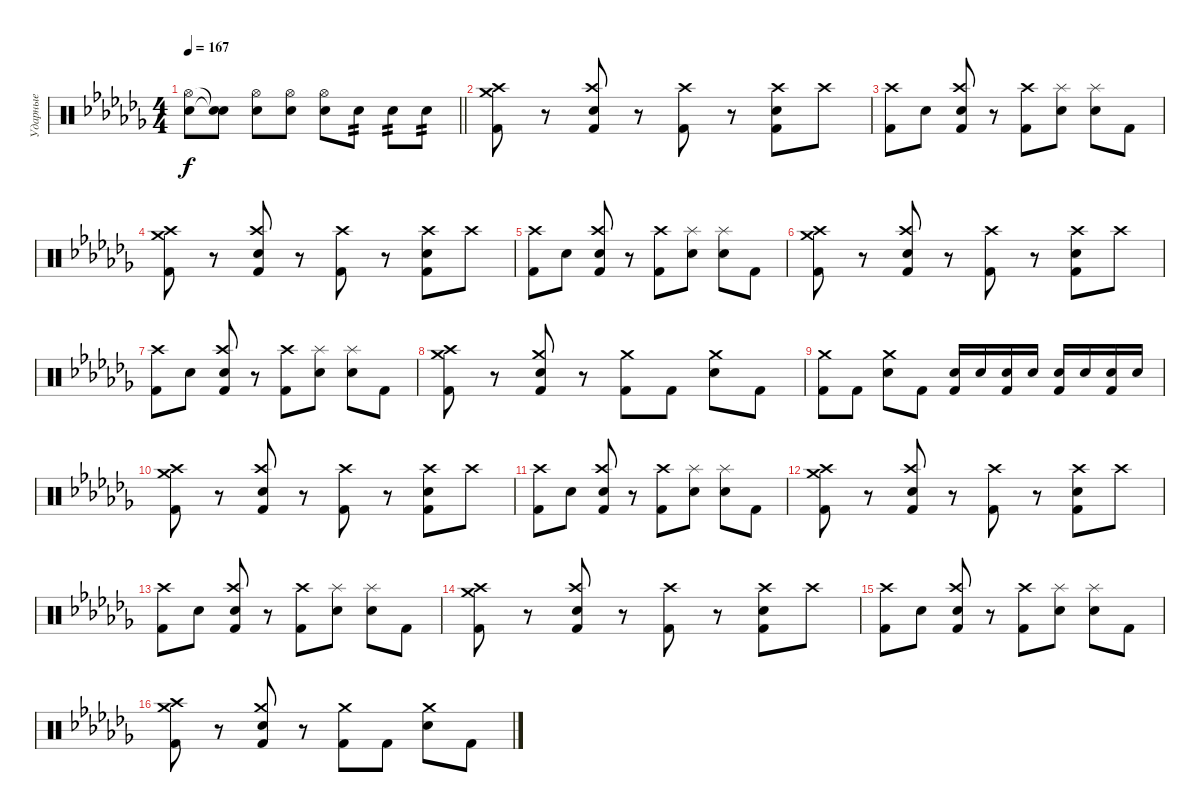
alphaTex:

\track ("Ударные" "Ударные") {instrument percussion}
\staff {score}
\articulation defaults
\ts (4 4)
\tempo 167
\clef neutral
\barLineRight lightlight
\ks abminor
("Hi-Hat (open)" "Electric Snare (hit)").8{dy f} ("Snare (hit)"{t} "Snare (hit)"{t}).8 ("Hi-Hat (open)" "Electric Snare (hit)").8 ("Hi-Hat (open)" "Electric Snare (hit)").8 ("Hi-Hat (open)" "Electric Snare (hit)").8 "Electric Snare (hit)".8{tp 2} "Electric Snare (hit)".8{tp 2} "Electric Snare (hit)".8{tp 2} |
("Crash high (hit)" "Crash medium (hit)" "Kick (hit) 2").8 r.8 ("Crash high (hit)" "Electric Snare (hit)" "Kick (hit) 2").8 r.8 ("Crash high (hit)" "Kick (hit) 2").8 r.8 ("Crash high (hit)" "Electric Snare (hit)" "Kick (hit) 2").8 "Crash high (hit)".8 |
("Crash high (hit)" "Kick (hit) 2").8 "Electric Snare (hit)".8 ("Crash high (hit)" "Electric Snare (hit)" "Kick (hit) 2").8 r.8 ("Crash high (hit)" "Kick (hit) 2").8 ("Splash (hit)" "Electric Snare (hit)").8 ("Splash (hit)" "Electric Snare (hit)").8 "Kick (hit) 2".8 |
("Crash high (hit)" "Crash medium (hit)" "Kick (hit) 2").8 r.8 ("Crash high (hit)" "Electric Snare (hit)" "Kick (hit) 2").8 r.8 ("Crash high (hit)" "Kick (hit) 2").8 r.8 ("Crash high (hit)" "Electric Snare (hit)" "Kick (hit) 2").8 "Crash high (hit)".8 |
("Crash high (hit)" "Kick (hit) 2").8 "Electric Snare (hit)".8 ("Crash high (hit)" "Electric Snare (hit)" "Kick (hit) 2").8 r.8 ("Crash high (hit)" "Kick (hit) 2").8 ("Splash (hit)" "Electric Snare (hit)").8 ("Splash (hit)" "Electric Snare (hit)").8 "Kick (hit) 2".8 |
("Crash high (hit)" "Crash medium (hit)" "Kick (hit) 2").8 r.8 ("Crash high (hit)" "Electric Snare (hit)" "Kick (hit) 2").8 r.8 ("Crash high (hit)" "Kick (hit) 2").8 r.8 ("Crash high (hit)" "Electric Snare (hit)" "Kick (hit) 2").8 "Crash high (hit)".8 |
("Crash high (hit)" "Kick (hit) 2").8 "Electric Snare (hit)".8 ("Crash high (hit)" "Electric Snare (hit)" "Kick (hit) 2").8 r.8 ("Crash high (hit)" "Kick (hit) 2").8 ("Splash (hit)" "Electric Snare (hit)").8 ("Splash (hit)" "Electric Snare (hit)").8 "Kick (hit) 2".8 |
("Crash high (hit)" "Crash medium (hit)" "Kick (hit) 2").8 r.8 ("Crash medium (hit)" "Electric Snare (hit)" "Kick (hit) 2").8 r.8 ("Crash medium (hit)" "Kick (hit) 2").8 "Kick (hit) 2".8 ("Crash medium (hit)" "Electric Snare (hit)").8 "Kick (hit) 2".8 |
("Crash medium (hit)" "Kick (hit) 2").8 "Kick (hit) 2".8 ("Crash medium (hit)" "Electric Snare (hit)").8 "Kick (hit) 2".8 ("Electric Snare (hit)" "Kick (hit) 2").16 "Electric Snare (hit)".16 ("Electric Snare (hit)" "Kick (hit) 2").16 "Electric Snare (hit)".16 ("Electric Snare (hit)" "Kick (hit) 2").16 "Electric Snare (hit)".16 ("Electric Snare (hit)" "Kick (hit) 2").16 "Electric Snare (hit)".16 |
("Crash high (hit)" "Crash medium (hit)" "Kick (hit) 2").8 r.8 ("Crash high (hit)" "Electric Snare (hit)" "Kick (hit) 2").8 r.8 ("Crash high (hit)" "Kick (hit) 2").8 r.8 ("Crash high (hit)" "Electric Snare (hit)" "Kick (hit) 2").8 "Crash high (hit)".8 |
("Crash high (hit)" "Kick (hit) 2").8 "Electric Snare (hit)".8 ("Crash high (hit)" "Electric Snare (hit)" "Kick (hit) 2").8 r.8 ("Crash high (hit)" "Kick (hit) 2").8 ("Splash (hit)" "Electric Snare (hit)").8 ("Splash (hit)" "Electric Snare (hit)").8 "Kick (hit) 2".8 |
("Crash high (hit)" "Crash medium (hit)" "Kick (hit) 2").8 r.8 ("Crash high (hit)" "Electric Snare (hit)" "Kick (hit) 2").8 r.8 ("Crash high (hit)" "Kick (hit) 2").8 r.8 ("Crash high (hit)" "Electric Snare (hit)" "Kick (hit) 2").8 "Crash high (hit)".8 |
("Crash high (hit)" "Kick (hit) 2").8 "Electric Snare (hit)".8 ("Crash high (hit)" "Electric Snare (hit)" "Kick (hit) 2").8 r.8 ("Crash high (hit)" "Kick (hit) 2").8 ("Splash (hit)" "Electric Snare (hit)").8 ("Splash (hit)" "Electric Snare (hit)").8 "Kick (hit) 2".8 |
("Crash high (hit)" "Crash medium (hit)" "Kick (hit) 2").8 r.8 ("Crash high (hit)" "Electric Snare (hit)" "Kick (hit) 2").8 r.8 ("Crash high (hit)" "Kick (hit) 2").8 r.8 ("Crash high (hit)" "Electric Snare (hit)" "Kick (hit) 2").8 "Crash high (hit)".8 |
("Crash high (hit)" "Kick (hit) 2").8 "Electric Snare (hit)".8 ("Crash high (hit)" "Electric Snare (hit)" "Kick (hit) 2").8 r.8 ("Crash high (hit)" "Kick (hit) 2").8 ("Splash (hit)" "Electric Snare (hit)").8 ("Splash (hit)" "Electric Snare (hit)").8 "Kick (hit) 2".8 |
("Crash high (hit)" "Crash medium (hit)" "Kick (hit) 2").8 r.8 ("Crash medium (hit)" "Electric Snare (hit)" "Kick (hit) 2").8 r.8 ("Crash medium (hit)" "Kick (hit) 2").8 "Kick (hit) 2".8 ("Crash medium (hit)" "Electric Snare (hit)").8 "Kick (hit) 2".8
